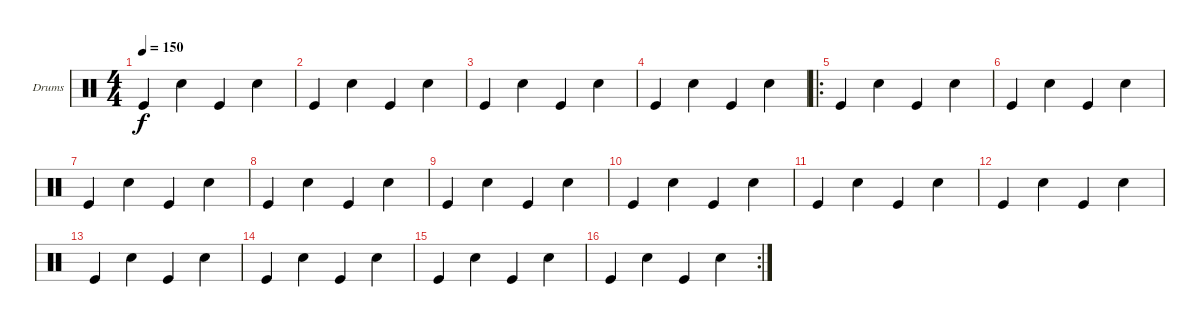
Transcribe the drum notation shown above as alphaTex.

\bracketExtendMode groupsimilarinstruments
\firstSystemTrackNameOrientation horizontal
\otherSystemsTrackNameOrientation horizontal
\track ("Drumkit" "Drums") {instrument percussion}
\staff {score}
\articulation defaults
\ts (4 4)
\tempo 150
\clef neutral
\ks c "Kick (hit)".4{dy f} "Snare (hit) 2".4 "Kick (hit)".4 "Snare (hit) 2".4
|
"Kick (hit)".4 "Snare (hit) 2".4 "Kick (hit)".4 "Snare (hit) 2".4 |
"Kick (hit)".4 "Snare (hit) 2".4 "Kick (hit)".4 "Snare (hit) 2".4 |
"Kick (hit)".4 "Snare (hit) 2".4 "Kick (hit)".4 "Snare (hit) 2".4 |
\ro "Kick (hit)".4 "Snare (hit) 2".4 "Kick (hit)".4 "Snare (hit) 2".4
|
"Kick (hit)".4 "Snare (hit) 2".4 "Kick (hit)".4 "Snare (hit) 2".4 |
"Kick (hit)".4 "Snare (hit) 2".4 "Kick (hit)".4 "Snare (hit) 2".4 |
"Kick (hit)".4 "Snare (hit) 2".4 "Kick (hit)".4 "Snare (hit) 2".4 |
"Kick (hit)".4 "Snare (hit) 2".4 "Kick (hit)".4 "Snare (hit) 2".4 |
"Kick (hit)".4 "Snare (hit) 2".4 "Kick (hit)".4 "Snare (hit) 2".4 |
"Kick (hit)".4 "Snare (hit) 2".4 "Kick (hit)".4 "Snare (hit) 2".4 |
"Kick (hit)".4 "Snare (hit) 2".4 "Kick (hit)".4 "Snare (hit) 2".4 |
"Kick (hit)".4 "Snare (hit) 2".4 "Kick (hit)".4 "Snare (hit) 2".4 |
"Kick (hit)".4 "Snare (hit) 2".4 "Kick (hit)".4 "Snare (hit) 2".4 |
"Kick (hit)".4 "Snare (hit) 2".4 "Kick (hit)".4 "Snare (hit) 2".4 |
\rc 2 "Kick (hit)".4 "Snare (hit) 2".4 "Kick (hit)".4 "Snare (hit) 2".4
